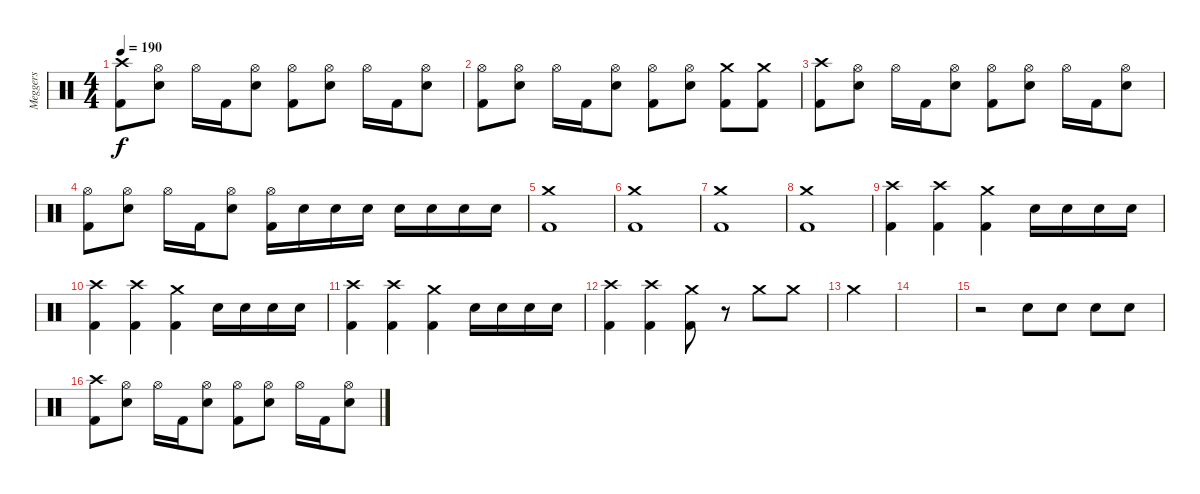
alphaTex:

\track ("Meggers" "Meggers") {instrument percussion}
\staff {score}
\articulation defaults
\ts (4 4)
\tempo 190
\clef neutral
\ks c
("Crash high (hit)" "Kick (hit) 2").8{dy f} ("Hi-Hat (open)" "Electric Snare (hit)").8 "Hi-Hat (open)".16 "Kick (hit) 2".16 ("Hi-Hat (open)" "Electric Snare (hit)").8 ("Hi-Hat (open)" "Kick (hit) 2").8 ("Hi-Hat (open)" "Electric Snare (hit)").8 "Hi-Hat (open)".16 "Kick (hit) 2".16 ("Hi-Hat (open)" "Electric Snare (hit)").8 |
("Hi-Hat (open)" "Kick (hit) 2").8 ("Hi-Hat (open)" "Electric Snare (hit)").8 "Hi-Hat (open)".16 "Kick (hit) 2".16 ("Hi-Hat (open)" "Electric Snare (hit)").8 ("Hi-Hat (open)" "Kick (hit) 2").8 ("Hi-Hat (open)" "Electric Snare (hit)").8 ("Crash medium (hit)" "Kick (hit) 2").8 ("Crash medium (hit)" "Kick (hit) 2").8 |
("Crash high (hit)" "Kick (hit) 2").8 ("Hi-Hat (open)" "Electric Snare (hit)").8 "Hi-Hat (open)".16 "Kick (hit) 2".16 ("Hi-Hat (open)" "Electric Snare (hit)").8 ("Hi-Hat (open)" "Kick (hit) 2").8 ("Hi-Hat (open)" "Electric Snare (hit)").8 "Hi-Hat (open)".16 "Kick (hit) 2".16 ("Hi-Hat (open)" "Electric Snare (hit)").8 |
("Hi-Hat (open)" "Kick (hit) 2").8 ("Hi-Hat (open)" "Electric Snare (hit)").8 "Hi-Hat (open)".16 "Kick (hit) 2".16 ("Hi-Hat (open)" "Electric Snare (hit)").8 ("Hi-Hat (open)" "Kick (hit) 2").16 "Electric Snare (hit)".16 "Electric Snare (hit)".16 "Electric Snare (hit)".16 "Electric Snare (hit)".16 "Electric Snare (hit)".16 "Electric Snare (hit)".16 "Electric Snare (hit)".16 |
("Crash medium (hit)" "Kick (hit) 2").1 |
("Crash medium (hit)" "Kick (hit) 2").1 |
("Crash medium (hit)" "Kick (hit) 2").1 |
("Crash medium (hit)" "Kick (hit) 2").1 |
("Crash high (hit)" "Kick (hit) 2").4 ("Crash high (hit)" "Kick (hit) 2").4 ("Crash medium (hit)" "Kick (hit) 2").4 "Electric Snare (hit)".16 "Electric Snare (hit)".16 "Electric Snare (hit)".16 "Electric Snare (hit)".16 |
("Crash high (hit)" "Kick (hit) 2").4 ("Crash high (hit)" "Kick (hit) 2").4 ("Crash medium (hit)" "Kick (hit) 2").4 "Electric Snare (hit)".16 "Electric Snare (hit)".16 "Electric Snare (hit)".16 "Electric Snare (hit)".16 |
("Crash high (hit)" "Kick (hit) 2").4 ("Crash high (hit)" "Kick (hit) 2").4 ("Crash medium (hit)" "Kick (hit) 2").4 "Electric Snare (hit)".16 "Electric Snare (hit)".16 "Electric Snare (hit)".16 "Electric Snare (hit)".16 |
("Crash high (hit)" "Kick (hit) 2").4 ("Crash high (hit)" "Kick (hit) 2").4 ("Crash medium (hit)" "Kick (hit) 2").8 r.8 "Crash medium (hit)".8 "Crash medium (hit)".8 |
"Crash medium (hit)".4 |
|
r.2 "Electric Snare (hit)".8 "Electric Snare (hit)".8 "Electric Snare (hit)".8 "Electric Snare (hit)".8 |
("Crash high (hit)" "Kick (hit) 2").8 ("Hi-Hat (open)" "Electric Snare (hit)").8 "Hi-Hat (open)".16 "Kick (hit) 2".16 ("Hi-Hat (open)" "Electric Snare (hit)").8 ("Hi-Hat (open)" "Kick (hit) 2").8 ("Hi-Hat (open)" "Electric Snare (hit)").8 "Hi-Hat (open)".16 "Kick (hit) 2".16 ("Hi-Hat (open)" "Electric Snare (hit)").8
